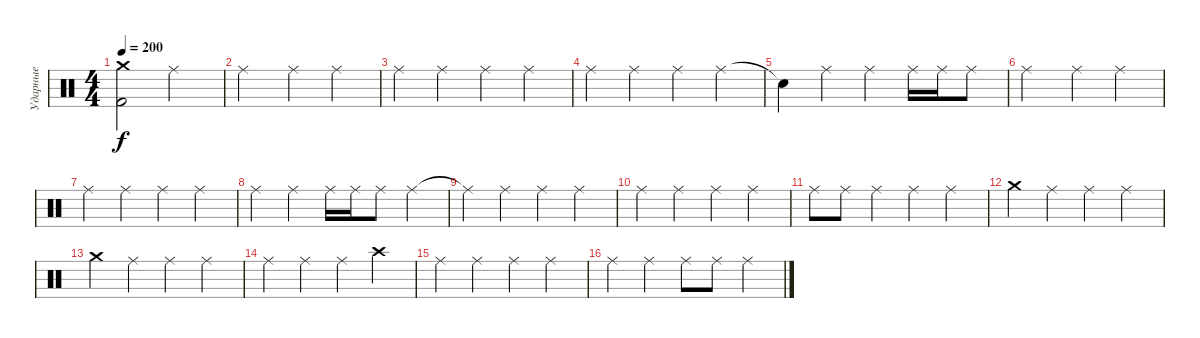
\track ("Ударные" "Ударные") {instrument percussion}
\staff {score}
\articulation defaults
\ts (4 4)
\tempo 200
\clef neutral
\ks c
("Crash medium (hit)" "Kick (hit) 2").2{dy f} "Ride (middle)".2 |
"Ride (middle)".2 "Ride (middle)".4 "Ride (middle)".4 |
"Ride (middle)".4 "Ride (middle)".4 "Ride (middle)".4 "Ride (middle)".4 |
"Ride (middle)".4 "Ride (middle)".4 "Ride (middle)".4 "Ride (middle)".4 |
"Snare (hit)"{t}.4 "Ride (middle)".4 "Ride (middle)".4 "Ride (middle)".16 "Ride (middle)".16 "Ride (middle)".8 |
"Ride (middle)".2 "Ride (middle)".4 "Ride (middle)".4 |
"Ride (middle)".4 "Ride (middle)".4 "Ride (middle)".4 "Ride (middle)".4 |
"Ride (middle)".4 "Ride (middle)".4 "Ride (middle)".16 "Ride (middle)".16 "Ride (middle)".8 "Ride (middle)".4 |
"Ride (middle)"{t}.4 "Ride (middle)".4 "Ride (middle)".4 "Ride (middle)".4 |
"Ride (middle)".4 "Ride (middle)".4 "Ride (middle)".4 "Ride (middle)".4 |
"Ride (middle)".8 "Ride (middle)".8 "Ride (middle)".4 "Ride (middle)".4 "Ride (middle)".4 |
"Crash medium (hit)".4 "Ride (middle)".4 "Ride (middle)".4 "Ride (middle)".4 |
"Crash medium (hit)".4 "Ride (middle)".4 "Ride (middle)".4 "Ride (middle)".4 |
"Ride (middle)".4 "Ride (middle)".4 "Ride (middle)".4 "Crash high (hit)".4 |
"Ride (middle)".4 "Ride (middle)".4 "Ride (middle)".4 "Ride (middle)".4 |
"Ride (middle)".4 "Ride (middle)".4 "Ride (middle)".8 "Ride (middle)".8 "Ride (middle)".4
